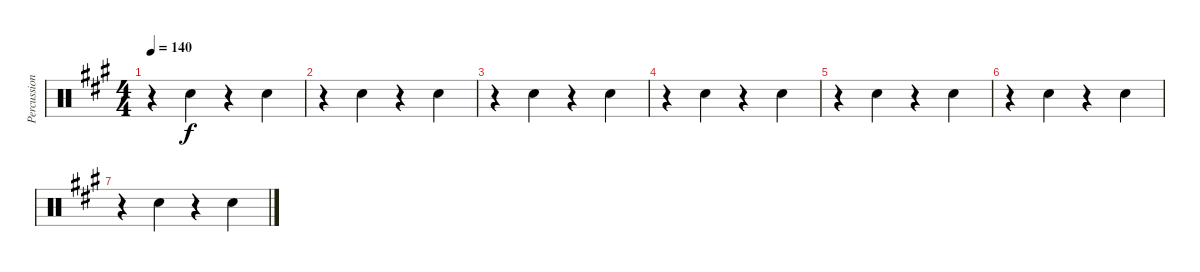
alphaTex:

\track ("Percussion" "Percussion") {instrument percussion}
\staff {score}
\articulation defaults
\ts (4 4)
\tempo 140
\clef neutral
\ks a
r.4{dy f} "Electric Snare (hit)".4 r.4 "Electric Snare (hit)".4 |
r.4 "Electric Snare (hit)".4 r.4 "Electric Snare (hit)".4 |
r.4 "Electric Snare (hit)".4 r.4 "Electric Snare (hit)".4 |
r.4 "Electric Snare (hit)".4 r.4 "Electric Snare (hit)".4 |
r.4 "Electric Snare (hit)".4 r.4 "Electric Snare (hit)".4 |
r.4 "Electric Snare (hit)".4 r.4 "Electric Snare (hit)".4 |
r.4 "Electric Snare (hit)".4 r.4 "Electric Snare (hit)".4
